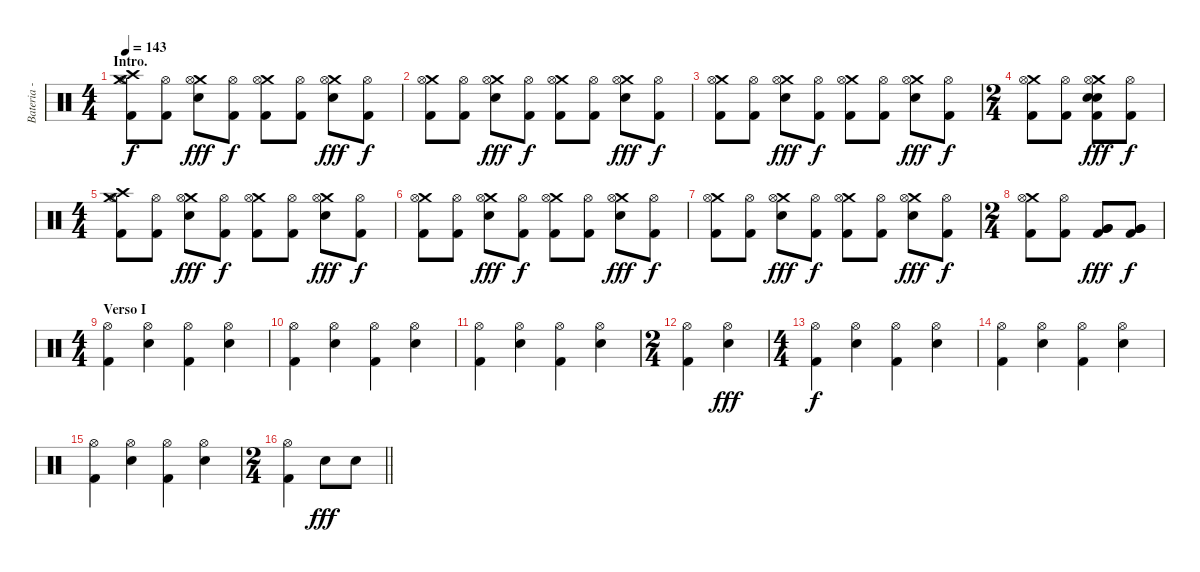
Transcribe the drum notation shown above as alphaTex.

\track ("Bateria - Larzon" "Bateria - ") {instrument percussion}
\staff {score}
\articulation defaults
\ts (4 4)
\section ("" "Intro.")
\tempo 143
\clef neutral
\ks c
("Kick (hit) 2" "Crash medium (hit)" "Crash high (hit)" "Hi-Hat (open)").8{dy f} ("Kick (hit) 2" "Hi-Hat (open)").8 ("Electric Snare (hit)" "Crash medium (hit)" "Hi-Hat (open)").8{dy fff} ("Kick (hit) 2" "Hi-Hat (open)").8{dy f} ("Kick (hit) 2" "Crash medium (hit)" "Hi-Hat (open)").8 ("Kick (hit) 2" "Hi-Hat (open)").8 ("Electric Snare (hit)" "Crash medium (hit)" "Hi-Hat (open)").8{dy fff} ("Kick (hit) 2" "Hi-Hat (open)").8{dy f} |
("Kick (hit) 2" "Crash medium (hit)" "Hi-Hat (open)").8 ("Kick (hit) 2" "Hi-Hat (open)").8 ("Electric Snare (hit)" "Crash medium (hit)" "Hi-Hat (open)").8{dy fff} ("Kick (hit) 2" "Hi-Hat (open)").8{dy f} ("Kick (hit) 2" "Crash medium (hit)" "Hi-Hat (open)").8 ("Kick (hit) 2" "Hi-Hat (open)").8 ("Electric Snare (hit)" "Crash medium (hit)" "Hi-Hat (open)").8{dy fff} ("Kick (hit) 2" "Hi-Hat (open)").8{dy f} |
("Kick (hit) 2" "Crash medium (hit)" "Hi-Hat (open)").8 ("Kick (hit) 2" "Hi-Hat (open)").8 ("Electric Snare (hit)" "Crash medium (hit)" "Hi-Hat (open)").8{dy fff} ("Kick (hit) 2" "Hi-Hat (open)").8{dy f} ("Kick (hit) 2" "Crash medium (hit)" "Hi-Hat (open)").8 ("Kick (hit) 2" "Hi-Hat (open)").8 ("Electric Snare (hit)" "Crash medium (hit)" "Hi-Hat (open)").8{dy fff} ("Kick (hit) 2" "Hi-Hat (open)").8{dy f} |
\ts (2 4)
("Kick (hit) 2" "Crash medium (hit)" "Hi-Hat (open)").8 ("Kick (hit) 2" "Hi-Hat (open)").8 ("Kick (hit) 2" "Electric Snare (hit)" "Electric Snare (hit)" "Crash medium (hit)" "Hi-Hat (open)").8{dy fff} ("Kick (hit) 2" "Hi-Hat (open)").8{dy f} |
\ts (4 4)
("Kick (hit) 2" "Crash medium (hit)" "Crash high (hit)" "Hi-Hat (open)").8 ("Kick (hit) 2" "Hi-Hat (open)").8 ("Electric Snare (hit)" "Crash medium (hit)" "Hi-Hat (open)").8{dy fff} ("Kick (hit) 2" "Hi-Hat (open)").8{dy f} ("Kick (hit) 2" "Crash medium (hit)" "Hi-Hat (open)").8 ("Kick (hit) 2" "Hi-Hat (open)").8 ("Electric Snare (hit)" "Crash medium (hit)" "Hi-Hat (open)").8{dy fff} ("Kick (hit) 2" "Hi-Hat (open)").8{dy f} |
("Kick (hit) 2" "Crash medium (hit)" "Hi-Hat (open)").8 ("Kick (hit) 2" "Hi-Hat (open)").8 ("Electric Snare (hit)" "Crash medium (hit)" "Hi-Hat (open)").8{dy fff} ("Kick (hit) 2" "Hi-Hat (open)").8{dy f} ("Kick (hit) 2" "Crash medium (hit)" "Hi-Hat (open)").8 ("Kick (hit) 2" "Hi-Hat (open)").8 ("Electric Snare (hit)" "Crash medium (hit)" "Hi-Hat (open)").8{dy fff} ("Kick (hit) 2" "Hi-Hat (open)").8{dy f} |
("Kick (hit) 2" "Crash medium (hit)" "Hi-Hat (open)").8 ("Kick (hit) 2" "Hi-Hat (open)").8 ("Electric Snare (hit)" "Crash medium (hit)" "Hi-Hat (open)").8{dy fff} ("Kick (hit) 2" "Hi-Hat (open)").8{dy f} ("Kick (hit) 2" "Crash medium (hit)" "Hi-Hat (open)").8 ("Kick (hit) 2" "Hi-Hat (open)").8 ("Electric Snare (hit)" "Crash medium (hit)" "Hi-Hat (open)").8{dy fff} ("Kick (hit) 2" "Hi-Hat (open)").8{dy f} |
\ts (2 4)
("Kick (hit) 2" "Crash medium (hit)" "Hi-Hat (open)").8 ("Kick (hit) 2" "Hi-Hat (open)").8 ("Kick (hit) 2" "Very Low Tom (hit)" "Very Low Tom (hit)").8{dy fff} ("Kick (hit) 2" "Very Low Tom (hit)" "Very Low Tom (hit)").8{dy f} |
\ts (4 4)
\section ("" "Verso I")
("Kick (hit) 2" "Hi-Hat (open)").4 ("Electric Snare (hit)" "Hi-Hat (open)").4 ("Kick (hit) 2" "Hi-Hat (open)").4 ("Electric Snare (hit)" "Hi-Hat (open)").4 |
("Kick (hit) 2" "Hi-Hat (open)").4 ("Electric Snare (hit)" "Hi-Hat (open)").4 ("Kick (hit) 2" "Hi-Hat (open)").4 ("Electric Snare (hit)" "Hi-Hat (open)").4 |
("Kick (hit) 2" "Hi-Hat (open)").4 ("Electric Snare (hit)" "Hi-Hat (open)").4 ("Kick (hit) 2" "Hi-Hat (open)").4 ("Electric Snare (hit)" "Hi-Hat (open)").4 |
\ts (2 4)
("Kick (hit) 2" "Hi-Hat (open)").4 ("Electric Snare (hit)" "Hi-Hat (open)").4{dy fff} |
\ts (4 4)
("Kick (hit) 2" "Hi-Hat (open)").4{dy f} ("Electric Snare (hit)" "Hi-Hat (open)").4 ("Kick (hit) 2" "Hi-Hat (open)").4 ("Electric Snare (hit)" "Hi-Hat (open)").4 |
("Kick (hit) 2" "Hi-Hat (open)").4 ("Electric Snare (hit)" "Hi-Hat (open)").4 ("Kick (hit) 2" "Hi-Hat (open)").4 ("Electric Snare (hit)" "Hi-Hat (open)").4 |
("Kick (hit) 2" "Hi-Hat (open)").4 ("Electric Snare (hit)" "Hi-Hat (open)").4 ("Kick (hit) 2" "Hi-Hat (open)").4 ("Electric Snare (hit)" "Hi-Hat (open)").4 |
\ts (2 4)
\barLineRight lightlight
("Kick (hit) 2" "Hi-Hat (open)").4 "Electric Snare (hit)".8{dy fff} "Electric Snare (hit)".8
